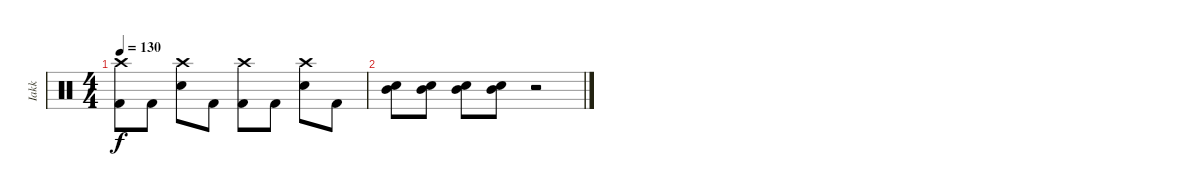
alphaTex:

\track ("Iakk" "Iakk") {instrument percussion}
\staff {score}
\articulation defaults
\ts (4 4)
\tempo 130
\clef neutral
\ks c
("Crash high (hit)" "Kick (hit) 2").8{dy f} "Kick (hit) 2".8 ("Crash high (hit)" "Electric Snare (hit)").8 "Kick (hit) 2".8 ("Crash high (hit)" "Kick (hit) 2").8 "Kick (hit) 2".8 ("Crash high (hit)" "Electric Snare (hit)").8 "Kick (hit) 2".8 |
("Electric Snare (hit)" "Mid Tom (hit)").8 ("Electric Snare (hit)" "Mid Tom (hit)").8 ("Electric Snare (hit)" "Mid Tom (hit)").8 ("Electric Snare (hit)" "Mid Tom (hit)").8 r.2
